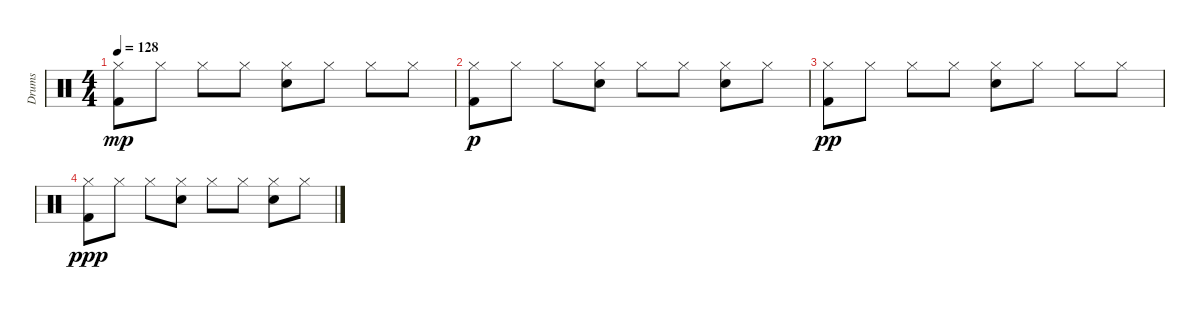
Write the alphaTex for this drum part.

\track ("Drums" "Drums") {instrument percussion}
\staff {score}
\articulation defaults
\ts (4 4)
\tempo 128
\clef neutral
\ks c
("Hi-Hat (closed)" "Kick (hit) 2").8{dy mp} "Hi-Hat (closed)".8 "Hi-Hat (closed)".8 "Hi-Hat (closed)".8 ("Hi-Hat (closed)" "Snare (hit) 2").8 "Hi-Hat (closed)".8 "Hi-Hat (closed)".8 "Hi-Hat (closed)".8 |
("Hi-Hat (closed)" "Kick (hit) 2").8{dy p} "Hi-Hat (closed)".8 "Hi-Hat (closed)".8 ("Hi-Hat (closed)" "Snare (hit) 2").8 "Hi-Hat (closed)".8 "Hi-Hat (closed)".8 ("Hi-Hat (closed)" "Snare (hit) 2").8 "Hi-Hat (closed)".8 |
("Hi-Hat (closed)" "Kick (hit) 2").8{dy pp} "Hi-Hat (closed)".8 "Hi-Hat (closed)".8 "Hi-Hat (closed)".8 ("Hi-Hat (closed)" "Snare (hit) 2").8 "Hi-Hat (closed)".8 "Hi-Hat (closed)".8 "Hi-Hat (closed)".8 |
("Hi-Hat (closed)" "Kick (hit) 2").8{dy ppp} "Hi-Hat (closed)".8 "Hi-Hat (closed)".8 ("Hi-Hat (closed)" "Snare (hit) 2").8 "Hi-Hat (closed)".8 "Hi-Hat (closed)".8 ("Hi-Hat (closed)" "Snare (hit) 2").8 "Hi-Hat (closed)".8
